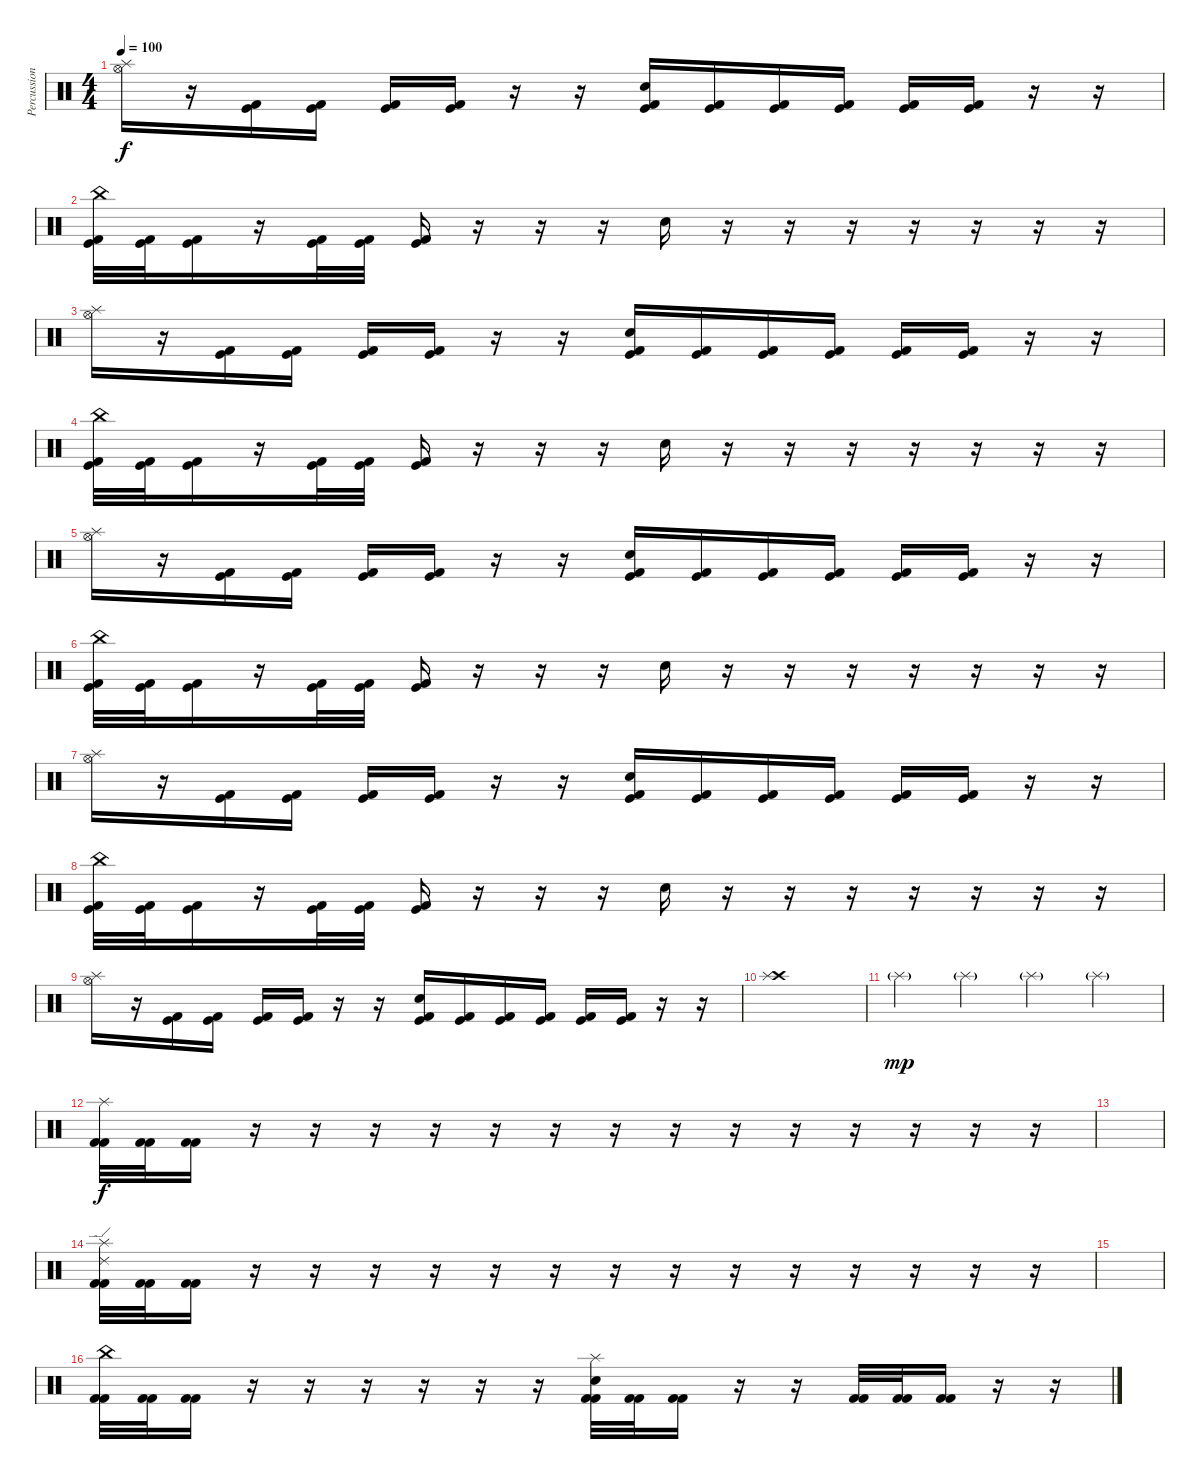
\track ("Percussion" "Percussion") {instrument percussion}
\staff {score}
\articulation defaults
\ts (4 4)
\tempo 100
\clef neutral
\ks c
("Splash (hit)" "Hi-Hat (open)").16{dy f} r.16 ("Kick (hit)" "Kick (hit) 2").16 ("Kick (hit)" "Kick (hit) 2").16 ("Kick (hit)" "Kick (hit) 2").16 ("Kick (hit)" "Kick (hit) 2").16 r.16 r.16 ("Electric Snare (hit)" "Kick (hit)" "Kick (hit) 2").16 ("Kick (hit)" "Kick (hit) 2").16 ("Kick (hit)" "Kick (hit) 2").16 ("Kick (hit)" "Kick (hit) 2").16 ("Kick (hit)" "Kick (hit) 2").16 ("Kick (hit)" "Kick (hit) 2").16 r.16 r.16 |
("China (hit)" "Kick (hit)" "Kick (hit) 2").32 ("Kick (hit)" "Kick (hit) 2").32 ("Kick (hit)" "Kick (hit) 2").16 r.16 ("Kick (hit)" "Kick (hit) 2").32 ("Kick (hit)" "Kick (hit) 2").32 ("Kick (hit)" "Kick (hit) 2").16 r.16 r.16 r.16 "Electric Snare (hit)".16 r.16 r.16 r.16 r.16 r.16 r.16 r.16 |
("Splash (hit)" "Hi-Hat (open)").16 r.16 ("Kick (hit)" "Kick (hit) 2").16 ("Kick (hit)" "Kick (hit) 2").16 ("Kick (hit)" "Kick (hit) 2").16 ("Kick (hit)" "Kick (hit) 2").16 r.16 r.16 ("Electric Snare (hit)" "Kick (hit)" "Kick (hit) 2").16 ("Kick (hit)" "Kick (hit) 2").16 ("Kick (hit)" "Kick (hit) 2").16 ("Kick (hit)" "Kick (hit) 2").16 ("Kick (hit)" "Kick (hit) 2").16 ("Kick (hit)" "Kick (hit) 2").16 r.16 r.16 |
("China (hit)" "Kick (hit)" "Kick (hit) 2").32 ("Kick (hit)" "Kick (hit) 2").32 ("Kick (hit)" "Kick (hit) 2").16 r.16 ("Kick (hit)" "Kick (hit) 2").32 ("Kick (hit)" "Kick (hit) 2").32 ("Kick (hit)" "Kick (hit) 2").16 r.16 r.16 r.16 "Electric Snare (hit)".16 r.16 r.16 r.16 r.16 r.16 r.16 r.16 |
("Splash (hit)" "Hi-Hat (open)").16 r.16 ("Kick (hit)" "Kick (hit) 2").16 ("Kick (hit)" "Kick (hit) 2").16 ("Kick (hit)" "Kick (hit) 2").16 ("Kick (hit)" "Kick (hit) 2").16 r.16 r.16 ("Electric Snare (hit)" "Kick (hit)" "Kick (hit) 2").16 ("Kick (hit)" "Kick (hit) 2").16 ("Kick (hit)" "Kick (hit) 2").16 ("Kick (hit)" "Kick (hit) 2").16 ("Kick (hit)" "Kick (hit) 2").16 ("Kick (hit)" "Kick (hit) 2").16 r.16 r.16 |
("China (hit)" "Kick (hit)" "Kick (hit) 2").32 ("Kick (hit)" "Kick (hit) 2").32 ("Kick (hit)" "Kick (hit) 2").16 r.16 ("Kick (hit)" "Kick (hit) 2").32 ("Kick (hit)" "Kick (hit) 2").32 ("Kick (hit)" "Kick (hit) 2").16 r.16 r.16 r.16 "Electric Snare (hit)".16 r.16 r.16 r.16 r.16 r.16 r.16 r.16 |
("Splash (hit)" "Hi-Hat (open)").16 r.16 ("Kick (hit)" "Kick (hit) 2").16 ("Kick (hit)" "Kick (hit) 2").16 ("Kick (hit)" "Kick (hit) 2").16 ("Kick (hit)" "Kick (hit) 2").16 r.16 r.16 ("Electric Snare (hit)" "Kick (hit)" "Kick (hit) 2").16 ("Kick (hit)" "Kick (hit) 2").16 ("Kick (hit)" "Kick (hit) 2").16 ("Kick (hit)" "Kick (hit) 2").16 ("Kick (hit)" "Kick (hit) 2").16 ("Kick (hit)" "Kick (hit) 2").16 r.16 r.16 |
("China (hit)" "Kick (hit)" "Kick (hit) 2").32 ("Kick (hit)" "Kick (hit) 2").32 ("Kick (hit)" "Kick (hit) 2").16 r.16 ("Kick (hit)" "Kick (hit) 2").32 ("Kick (hit)" "Kick (hit) 2").32 ("Kick (hit)" "Kick (hit) 2").16 r.16 r.16 r.16 "Electric Snare (hit)".16 r.16 r.16 r.16 r.16 r.16 r.16 r.16 |
("Splash (hit)" "Hi-Hat (open)").16 r.16 ("Kick (hit)" "Kick (hit) 2").16 ("Kick (hit)" "Kick (hit) 2").16 ("Kick (hit)" "Kick (hit) 2").16 ("Kick (hit)" "Kick (hit) 2").16 r.16 r.16 ("Electric Snare (hit)" "Kick (hit)" "Kick (hit) 2").16 ("Kick (hit)" "Kick (hit) 2").16 ("Kick (hit)" "Kick (hit) 2").16 ("Kick (hit)" "Kick (hit) 2").16 ("Kick (hit)" "Kick (hit) 2").16 ("Kick (hit)" "Kick (hit) 2").16 r.16 r.16 |
("Crash high (hit)" "Splash (hit)").1 |
"Splash (hit)"{g}.4{dy mp} "Splash (hit)"{g}.4 "Splash (hit)"{g}.4 "Splash (hit)"{g}.4 |
("Kick (hit) 2" "Splash (hit)" "Kick (hit) 2").32{dy f} ("Kick (hit) 2" "Kick (hit) 2").32 ("Kick (hit) 2" "Kick (hit) 2").16 r.16 r.16 r.16 r.16 r.16 r.16 r.16 r.16 r.16 r.16 r.16 r.16 r.16 r.16 |
|
("Kick (hit) 2" "Ride (edge) 2" "Splash (hit)" "Kick (hit) 2").32 ("Kick (hit) 2" "Kick (hit) 2").32 ("Kick (hit) 2" "Kick (hit) 2").16 r.16 r.16 r.16 r.16 r.16 r.16 r.16 r.16 r.16 r.16 r.16 r.16 r.16 r.16 |
|
("Kick (hit) 2" "China (hit)" "Kick (hit) 2").32 ("Kick (hit) 2" "Kick (hit) 2").32 ("Kick (hit) 2" "Kick (hit) 2").16 r.16 r.16 r.16 r.16 r.16 r.16 ("Kick (hit) 2" "Splash (hit)" "Electric Snare (hit)" "Kick (hit) 2").32 ("Kick (hit) 2" "Kick (hit) 2").32 ("Kick (hit) 2" "Kick (hit) 2").16 r.16 r.16 ("Kick (hit) 2" "Kick (hit) 2").32 ("Kick (hit) 2" "Kick (hit) 2").32 ("Kick (hit) 2" "Kick (hit) 2").16 r.16 r.16
